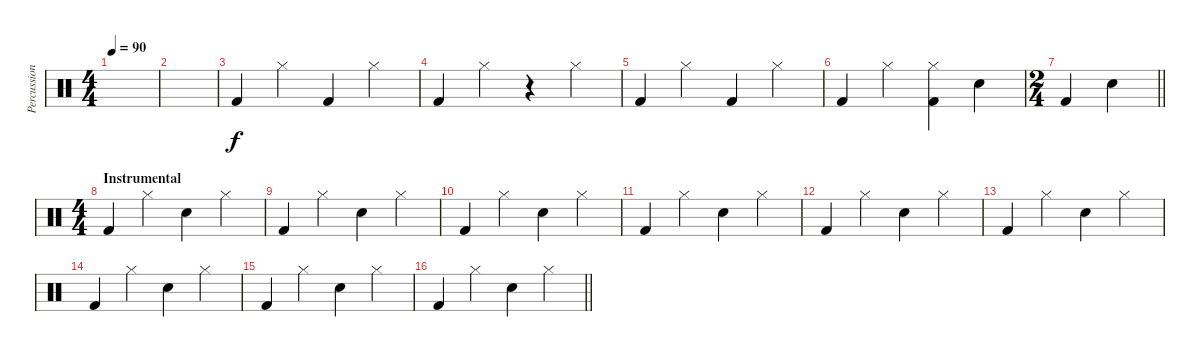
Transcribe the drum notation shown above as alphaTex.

\track ("Percussion" "Percussion") {instrument percussion}
\staff {score}
\articulation defaults
\ts (4 4)
\tempo 90
\clef neutral
\ks c
|
|
"Kick (hit) 2".4 "Hi-Hat (closed)".4 "Kick (hit) 2".4 "Hi-Hat (closed)".4 |
"Kick (hit) 2".4 "Hi-Hat (closed)".4 r.4 "Hi-Hat (closed)".4 |
"Kick (hit) 2".4 "Hi-Hat (closed)".4 "Kick (hit) 2".4 "Hi-Hat (closed)".4 |
"Kick (hit) 2".4 "Hi-Hat (closed)".4 ("Hi-Hat (closed)" "Kick (hit) 2").4 "Snare (hit) 2".4 |
\ts (2 4)
\barLineRight lightlight "Kick (hit) 2".4 "Snare (hit) 2".4
|
\ts (4 4)
\section ("" "Instrumental")
"Kick (hit) 2".4 "Hi-Hat (closed)".4 "Snare (hit) 2".4 "Hi-Hat (closed)".4 |
"Kick (hit) 2".4 "Hi-Hat (closed)".4 "Snare (hit) 2".4 "Hi-Hat (closed)".4 |
"Kick (hit) 2".4 "Hi-Hat (closed)".4 "Snare (hit) 2".4 "Hi-Hat (closed)".4 |
"Kick (hit) 2".4 "Hi-Hat (closed)".4 "Snare (hit) 2".4 "Hi-Hat (closed)".4 |
"Kick (hit) 2".4 "Hi-Hat (closed)".4 "Snare (hit) 2".4 "Hi-Hat (closed)".4 |
"Kick (hit) 2".4 "Hi-Hat (closed)".4 "Snare (hit) 2".4 "Hi-Hat (closed)".4 |
"Kick (hit) 2".4 "Hi-Hat (closed)".4 "Snare (hit) 2".4 "Hi-Hat (closed)".4 |
"Kick (hit) 2".4 "Hi-Hat (closed)".4 "Snare (hit) 2".4 "Hi-Hat (closed)".4 |
\barLineRight lightlight "Kick (hit) 2".4 "Hi-Hat (closed)".4 "Snare (hit) 2".4 "Hi-Hat (closed)".4
